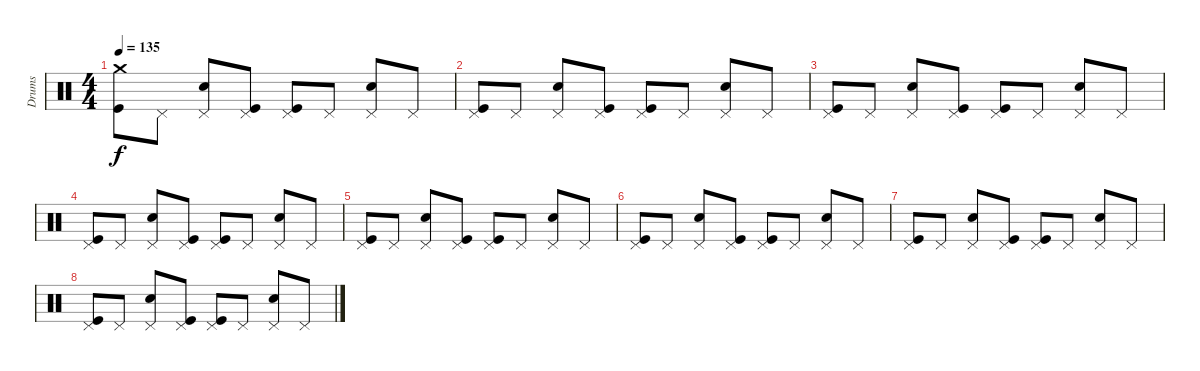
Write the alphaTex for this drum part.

\track ("Drums" "Drums") {instrument percussion}
\staff {score}
\articulation defaults
\ts (4 4)
\tempo 135
\clef neutral
\ks c
("Crash medium (hit)" "Kick (hit)").8{dy f} "Pedal Hi-Hat (hit)".8 ("Pedal Hi-Hat (hit)" "Electric Snare (hit)").8 ("Pedal Hi-Hat (hit)" "Kick (hit)").8 ("Pedal Hi-Hat (hit)" "Kick (hit)").8 "Pedal Hi-Hat (hit)".8 ("Pedal Hi-Hat (hit)" "Electric Snare (hit)").8 "Pedal Hi-Hat (hit)".8 |
("Pedal Hi-Hat (hit)" "Kick (hit)").8 "Pedal Hi-Hat (hit)".8 ("Pedal Hi-Hat (hit)" "Electric Snare (hit)").8 ("Pedal Hi-Hat (hit)" "Kick (hit)").8 ("Pedal Hi-Hat (hit)" "Kick (hit)").8 "Pedal Hi-Hat (hit)".8 ("Pedal Hi-Hat (hit)" "Electric Snare (hit)").8 "Pedal Hi-Hat (hit)".8 |
("Pedal Hi-Hat (hit)" "Kick (hit)").8 "Pedal Hi-Hat (hit)".8 ("Pedal Hi-Hat (hit)" "Electric Snare (hit)").8 ("Pedal Hi-Hat (hit)" "Kick (hit)").8 ("Pedal Hi-Hat (hit)" "Kick (hit)").8 "Pedal Hi-Hat (hit)".8 ("Pedal Hi-Hat (hit)" "Electric Snare (hit)").8 "Pedal Hi-Hat (hit)".8 |
("Pedal Hi-Hat (hit)" "Kick (hit)").8 "Pedal Hi-Hat (hit)".8 ("Pedal Hi-Hat (hit)" "Electric Snare (hit)").8 ("Pedal Hi-Hat (hit)" "Kick (hit)").8 ("Pedal Hi-Hat (hit)" "Kick (hit)").8 "Pedal Hi-Hat (hit)".8 ("Pedal Hi-Hat (hit)" "Electric Snare (hit)").8 "Pedal Hi-Hat (hit)".8 |
("Pedal Hi-Hat (hit)" "Kick (hit)").8 "Pedal Hi-Hat (hit)".8 ("Pedal Hi-Hat (hit)" "Electric Snare (hit)").8 ("Pedal Hi-Hat (hit)" "Kick (hit)").8 ("Pedal Hi-Hat (hit)" "Kick (hit)").8 "Pedal Hi-Hat (hit)".8 ("Pedal Hi-Hat (hit)" "Electric Snare (hit)").8 "Pedal Hi-Hat (hit)".8 |
("Pedal Hi-Hat (hit)" "Kick (hit)").8 "Pedal Hi-Hat (hit)".8 ("Pedal Hi-Hat (hit)" "Electric Snare (hit)").8 ("Pedal Hi-Hat (hit)" "Kick (hit)").8 ("Pedal Hi-Hat (hit)" "Kick (hit)").8 "Pedal Hi-Hat (hit)".8 ("Pedal Hi-Hat (hit)" "Electric Snare (hit)").8 "Pedal Hi-Hat (hit)".8 |
("Pedal Hi-Hat (hit)" "Kick (hit)").8 "Pedal Hi-Hat (hit)".8 ("Pedal Hi-Hat (hit)" "Electric Snare (hit)").8 ("Pedal Hi-Hat (hit)" "Kick (hit)").8 ("Pedal Hi-Hat (hit)" "Kick (hit)").8 "Pedal Hi-Hat (hit)".8 ("Pedal Hi-Hat (hit)" "Electric Snare (hit)").8 "Pedal Hi-Hat (hit)".8 |
("Pedal Hi-Hat (hit)" "Kick (hit)").8 "Pedal Hi-Hat (hit)".8 ("Pedal Hi-Hat (hit)" "Electric Snare (hit)").8 ("Pedal Hi-Hat (hit)" "Kick (hit)").8 ("Pedal Hi-Hat (hit)" "Kick (hit)").8 "Pedal Hi-Hat (hit)".8 ("Pedal Hi-Hat (hit)" "Electric Snare (hit)").8 "Pedal Hi-Hat (hit)".8
